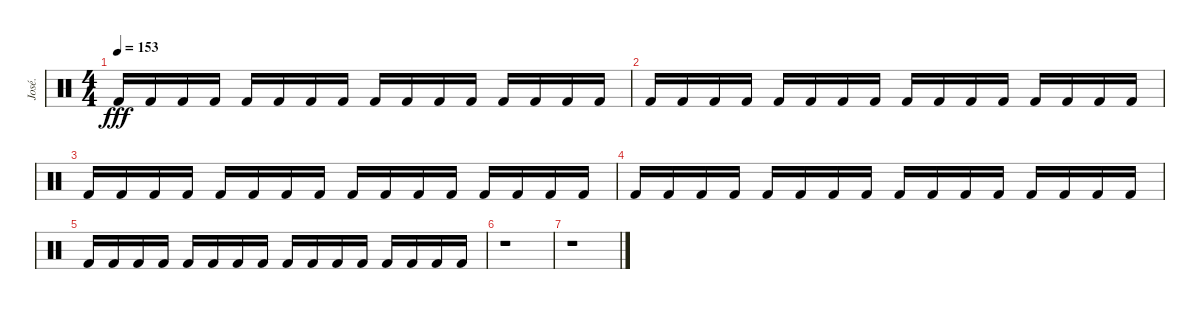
\track ("José." "José.") {instrument percussion}
\staff {score}
\articulation defaults
\ts (4 4)
\tempo 153
\clef neutral
\ks c "Kick (hit) 2".16{dy fff} "Kick (hit) 2".16 "Kick (hit) 2".16 "Kick (hit) 2".16 "Kick (hit) 2".16 "Kick (hit) 2".16 "Kick (hit) 2".16 "Kick (hit) 2".16 "Kick (hit) 2".16 "Kick (hit) 2".16 "Kick (hit) 2".16 "Kick (hit) 2".16 "Kick (hit) 2".16 "Kick (hit) 2".16 "Kick (hit) 2".16 "Kick (hit) 2".16
|
"Kick (hit) 2".16 "Kick (hit) 2".16 "Kick (hit) 2".16 "Kick (hit) 2".16 "Kick (hit) 2".16 "Kick (hit) 2".16 "Kick (hit) 2".16 "Kick (hit) 2".16 "Kick (hit) 2".16 "Kick (hit) 2".16 "Kick (hit) 2".16 "Kick (hit) 2".16 "Kick (hit) 2".16 "Kick (hit) 2".16 "Kick (hit) 2".16 "Kick (hit) 2".16 |
"Kick (hit) 2".16 "Kick (hit) 2".16 "Kick (hit) 2".16 "Kick (hit) 2".16 "Kick (hit) 2".16 "Kick (hit) 2".16 "Kick (hit) 2".16 "Kick (hit) 2".16 "Kick (hit) 2".16 "Kick (hit) 2".16 "Kick (hit) 2".16 "Kick (hit) 2".16 "Kick (hit) 2".16 "Kick (hit) 2".16 "Kick (hit) 2".16 "Kick (hit) 2".16 |
"Kick (hit) 2".16 "Kick (hit) 2".16 "Kick (hit) 2".16 "Kick (hit) 2".16 "Kick (hit) 2".16 "Kick (hit) 2".16 "Kick (hit) 2".16 "Kick (hit) 2".16 "Kick (hit) 2".16 "Kick (hit) 2".16 "Kick (hit) 2".16 "Kick (hit) 2".16 "Kick (hit) 2".16 "Kick (hit) 2".16 "Kick (hit) 2".16 "Kick (hit) 2".16 |
"Kick (hit) 2".16 "Kick (hit) 2".16 "Kick (hit) 2".16 "Kick (hit) 2".16 "Kick (hit) 2".16 "Kick (hit) 2".16 "Kick (hit) 2".16 "Kick (hit) 2".16 "Kick (hit) 2".16 "Kick (hit) 2".16 "Kick (hit) 2".16 "Kick (hit) 2".16 "Kick (hit) 2".16 "Kick (hit) 2".16 "Kick (hit) 2".16 "Kick (hit) 2".16 |
r.1 |
r.1
